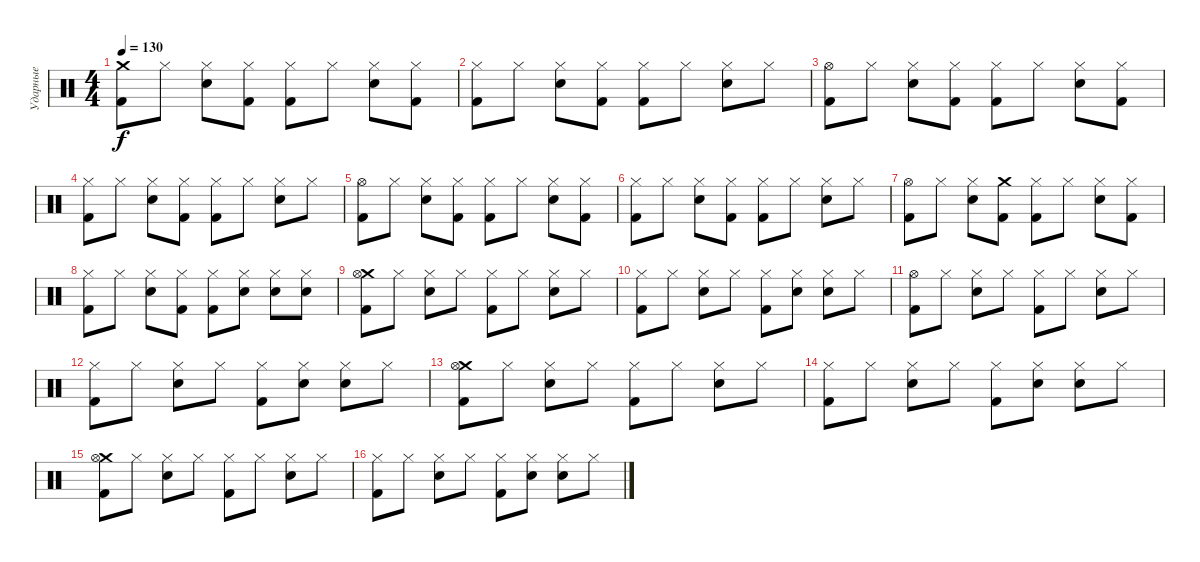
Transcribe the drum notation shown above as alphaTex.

\track ("Ударные" "Ударные") {instrument percussion}
\staff {score}
\articulation defaults
\ts (4 4)
\tempo 130
\clef neutral
\ks c
("Crash medium (hit)" "Kick (hit) 2").8{dy f} "Hi-Hat (closed)".8 ("Hi-Hat (closed)" "Snare (hit) 2").8 ("Hi-Hat (closed)" "Kick (hit) 2").8 ("Hi-Hat (closed)" "Kick (hit) 2").8 "Hi-Hat (closed)".8 ("Hi-Hat (closed)" "Snare (hit) 2").8 ("Hi-Hat (closed)" "Kick (hit) 2").8 |
("Hi-Hat (closed)" "Kick (hit) 2").8 "Hi-Hat (closed)".8 ("Hi-Hat (closed)" "Snare (hit) 2").8 ("Hi-Hat (closed)" "Kick (hit) 2").8 ("Hi-Hat (closed)" "Kick (hit) 2").8 "Hi-Hat (closed)".8 ("Hi-Hat (closed)" "Snare (hit) 2").8 "Hi-Hat (closed)".8 |
("Hi-Hat (open)" "Kick (hit) 2").8 "Hi-Hat (closed)".8 ("Hi-Hat (closed)" "Snare (hit) 2").8 ("Hi-Hat (closed)" "Kick (hit) 2").8 ("Hi-Hat (closed)" "Kick (hit) 2").8 "Hi-Hat (closed)".8 ("Hi-Hat (closed)" "Snare (hit) 2").8 ("Hi-Hat (closed)" "Kick (hit) 2").8 |
("Hi-Hat (closed)" "Kick (hit) 2").8 "Hi-Hat (closed)".8 ("Hi-Hat (closed)" "Snare (hit) 2").8 ("Hi-Hat (closed)" "Kick (hit) 2").8 ("Hi-Hat (closed)" "Kick (hit) 2").8 "Hi-Hat (closed)".8 ("Hi-Hat (closed)" "Snare (hit) 2").8 "Hi-Hat (closed)".8 |
("Hi-Hat (open)" "Kick (hit) 2").8 "Hi-Hat (closed)".8 ("Hi-Hat (closed)" "Snare (hit) 2").8 ("Hi-Hat (closed)" "Kick (hit) 2").8 ("Hi-Hat (closed)" "Kick (hit) 2").8 "Hi-Hat (closed)".8 ("Hi-Hat (closed)" "Snare (hit) 2").8 ("Hi-Hat (closed)" "Kick (hit) 2").8 |
("Hi-Hat (closed)" "Kick (hit) 2").8 "Hi-Hat (closed)".8 ("Hi-Hat (closed)" "Snare (hit) 2").8 ("Hi-Hat (closed)" "Kick (hit) 2").8 ("Hi-Hat (closed)" "Kick (hit) 2").8 "Hi-Hat (closed)".8 ("Hi-Hat (closed)" "Snare (hit) 2").8 "Hi-Hat (closed)".8 |
("Hi-Hat (open)" "Kick (hit) 2").8 "Hi-Hat (closed)".8 ("Hi-Hat (closed)" "Snare (hit) 2").8 ("Crash medium (hit)" "Kick (hit) 2").8 ("Hi-Hat (closed)" "Kick (hit) 2").8 "Hi-Hat (closed)".8 ("Hi-Hat (closed)" "Snare (hit) 2").8 ("Hi-Hat (closed)" "Kick (hit) 2").8 |
("Hi-Hat (closed)" "Kick (hit) 2").8 "Hi-Hat (closed)".8 ("Hi-Hat (closed)" "Snare (hit) 2").8 ("Hi-Hat (closed)" "Kick (hit) 2").8 ("Hi-Hat (closed)" "Kick (hit) 2").8 ("Hi-Hat (closed)" "Snare (hit) 2").8 ("Hi-Hat (closed)" "Snare (hit) 2").8 ("Hi-Hat (closed)" "Snare (hit) 2").8 |
("Crash medium (hit)" "Hi-Hat (open)" "Kick (hit) 2").8 "Hi-Hat (closed)".8 ("Hi-Hat (closed)" "Snare (hit) 2").8 "Hi-Hat (closed)".8 ("Hi-Hat (closed)" "Kick (hit) 2").8 "Hi-Hat (closed)".8 ("Hi-Hat (closed)" "Snare (hit) 2").8 "Hi-Hat (closed)".8 |
("Hi-Hat (closed)" "Kick (hit) 2").8 "Hi-Hat (closed)".8 ("Hi-Hat (closed)" "Snare (hit) 2").8 "Hi-Hat (closed)".8 ("Hi-Hat (closed)" "Kick (hit) 2").8 ("Hi-Hat (closed)" "Snare (hit) 2").8 ("Hi-Hat (closed)" "Snare (hit) 2").8 "Hi-Hat (closed)".8 |
("Hi-Hat (open)" "Kick (hit) 2").8 "Hi-Hat (closed)".8 ("Hi-Hat (closed)" "Snare (hit) 2").8 "Hi-Hat (closed)".8 ("Hi-Hat (closed)" "Kick (hit) 2").8 "Hi-Hat (closed)".8 ("Hi-Hat (closed)" "Snare (hit) 2").8 "Hi-Hat (closed)".8 |
("Hi-Hat (closed)" "Kick (hit) 2").8 "Hi-Hat (closed)".8 ("Hi-Hat (closed)" "Snare (hit) 2").8 "Hi-Hat (closed)".8 ("Hi-Hat (closed)" "Kick (hit) 2").8 ("Hi-Hat (closed)" "Snare (hit) 2").8 ("Hi-Hat (closed)" "Snare (hit) 2").8 "Hi-Hat (closed)".8 |
("Crash medium (hit)" "Hi-Hat (open)" "Kick (hit) 2").8 "Hi-Hat (closed)".8 ("Hi-Hat (closed)" "Snare (hit) 2").8 "Hi-Hat (closed)".8 ("Hi-Hat (closed)" "Kick (hit) 2").8 "Hi-Hat (closed)".8 ("Hi-Hat (closed)" "Snare (hit) 2").8 "Hi-Hat (closed)".8 |
("Hi-Hat (closed)" "Kick (hit) 2").8 "Hi-Hat (closed)".8 ("Hi-Hat (closed)" "Snare (hit) 2").8 "Hi-Hat (closed)".8 ("Hi-Hat (closed)" "Kick (hit) 2").8 ("Hi-Hat (closed)" "Snare (hit) 2").8 ("Hi-Hat (closed)" "Snare (hit) 2").8 "Hi-Hat (closed)".8 |
("Crash medium (hit)" "Hi-Hat (open)" "Kick (hit) 2").8 "Hi-Hat (closed)".8 ("Hi-Hat (closed)" "Snare (hit) 2").8 "Hi-Hat (closed)".8 ("Hi-Hat (closed)" "Kick (hit) 2").8 "Hi-Hat (closed)".8 ("Hi-Hat (closed)" "Snare (hit) 2").8 "Hi-Hat (closed)".8 |
("Hi-Hat (closed)" "Kick (hit) 2").8 "Hi-Hat (closed)".8 ("Hi-Hat (closed)" "Snare (hit) 2").8 "Hi-Hat (closed)".8 ("Hi-Hat (closed)" "Kick (hit) 2").8 ("Hi-Hat (closed)" "Snare (hit) 2").8 ("Hi-Hat (closed)" "Snare (hit) 2").8 "Hi-Hat (closed)".8
